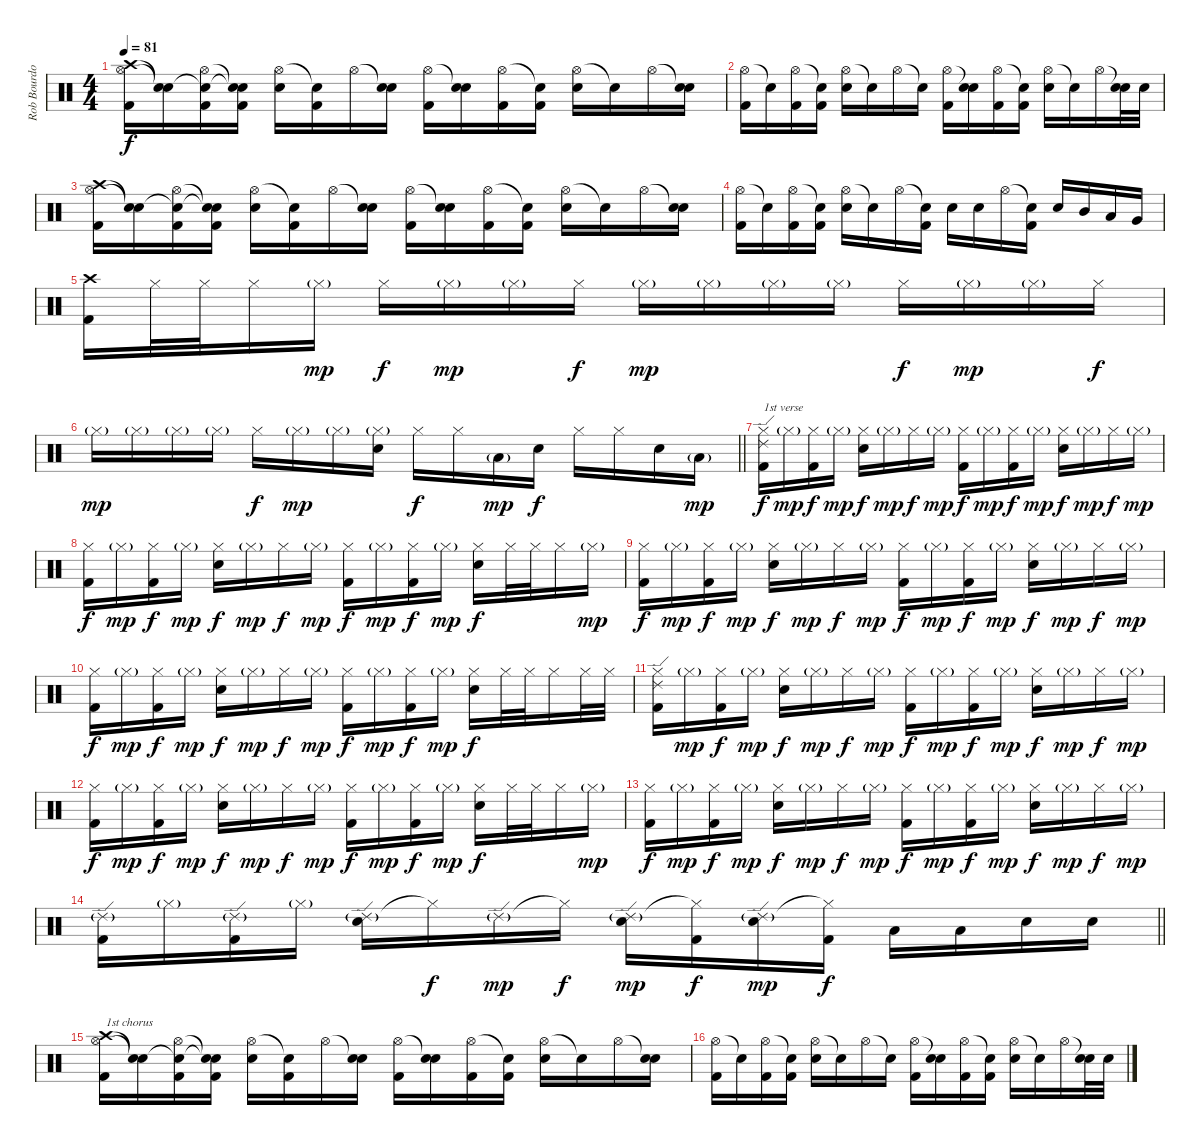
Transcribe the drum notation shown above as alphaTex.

\track ("Rob Bourdon - Drums" "Rob Bourdo") {instrument percussion}
\staff {score}
\articulation defaults
\ts (4 4)
\tempo 81
\clef neutral
\ks c
("Crash high (hit)" "Hi-Hat (open)" "Kick (hit) 2").16{dy f volume 12} ("Snare (hit)"{t} "Snare (hit)"{t}).16 ("Snare (hit)"{t} "Hi-Hat (open)" "Kick (hit) 2").16 ("Snare (hit)"{t} "Snare (hit)"{t} "Kick (hit) 2").16 ("Hi-Hat (open)" "Electric Snare (hit)").16 ("Snare (hit)"{t} "Kick (hit) 2").16 "Hi-Hat (open)".16 ("Snare (hit)"{t} "Electric Snare (hit)").16 ("Hi-Hat (open)" "Kick (hit) 2").16 ("Snare (hit)"{t} "Electric Snare (hit)").16 ("Hi-Hat (open)" "Kick (hit) 2").16 ("Snare (hit)"{t} "Kick (hit) 2").16 ("Hi-Hat (open)" "Electric Snare (hit)").16 "Snare (hit)"{t}.16 "Hi-Hat (open)".16 ("Snare (hit)"{t} "Electric Snare (hit)").16 |
("Hi-Hat (open)" "Kick (hit) 2").16 "Snare (hit)"{t}.16 ("Hi-Hat (open)" "Kick (hit) 2").16 ("Snare (hit)"{t} "Kick (hit) 2").16 ("Hi-Hat (open)" "Electric Snare (hit)").16 "Snare (hit)"{t}.16 "Hi-Hat (open)".16 "Snare (hit)"{t}.16 ("Hi-Hat (open)" "Kick (hit) 2").16 ("Snare (hit)"{t} "Electric Snare (hit)").16 ("Hi-Hat (open)" "Kick (hit) 2").16 ("Snare (hit)"{t} "Kick (hit) 2").16 ("Hi-Hat (open)" "Electric Snare (hit)").16 "Snare (hit)"{t}.16 "Hi-Hat (open)".16 ("Snare (hit)"{t} "Electric Snare (hit)").32 "Electric Snare (hit)".32 |
("Crash high (hit)" "Hi-Hat (open)" "Kick (hit) 2").16 ("Snare (hit)"{t} "Snare (hit)"{t}).16 ("Snare (hit)"{t} "Hi-Hat (open)" "Kick (hit) 2").16 ("Snare (hit)"{t} "Snare (hit)"{t} "Kick (hit) 2").16 ("Hi-Hat (open)" "Electric Snare (hit)").16 ("Snare (hit)"{t} "Kick (hit) 2").16 "Hi-Hat (open)".16 ("Snare (hit)"{t} "Electric Snare (hit)").16 ("Hi-Hat (open)" "Kick (hit) 2").16 ("Snare (hit)"{t} "Electric Snare (hit)").16 ("Hi-Hat (open)" "Kick (hit) 2").16 ("Snare (hit)"{t} "Kick (hit) 2").16 ("Hi-Hat (open)" "Electric Snare (hit)").16 "Snare (hit)"{t}.16 "Hi-Hat (open)".16 ("Snare (hit)"{t} "Electric Snare (hit)").16 |
("Hi-Hat (open)" "Kick (hit) 2").16 "Snare (hit)"{t}.16 ("Hi-Hat (open)" "Kick (hit) 2").16 ("Snare (hit)"{t} "Kick (hit) 2").16 ("Hi-Hat (open)" "Electric Snare (hit)").16 "Snare (hit)"{t}.16 "Hi-Hat (open)".16 ("Snare (hit)"{t} "Kick (hit) 2").16 "Electric Snare (hit)".16 "Electric Snare (hit)".16 "Hi-Hat (open)".16 ("Snare (hit)"{t} "Kick (hit) 2").16 "Electric Snare (hit)".16 "Mid Tom (hit)".16 "Low Tom (hit)".16 "Very Low Tom (hit)".16 |
("Crash high (hit)" "Kick (hit) 2").16 "Hi-Hat (closed)".32 "Hi-Hat (closed)".32 "Hi-Hat (closed)".16 "Hi-Hat (closed)"{g}.16{dy mp} "Hi-Hat (closed)".16{dy f} "Hi-Hat (closed)"{g}.16{dy mp} "Hi-Hat (closed)"{g}.16 "Hi-Hat (closed)".16{dy f} "Hi-Hat (closed)"{g}.16{dy mp} "Hi-Hat (closed)"{g}.16 "Hi-Hat (closed)"{g}.16 "Hi-Hat (closed)"{g}.16 "Hi-Hat (closed)".16{dy f} "Hi-Hat (closed)"{g}.16{dy mp} "Hi-Hat (closed)"{g}.16 "Hi-Hat (closed)".16{dy f} |
\barLineRight lightlight "Hi-Hat (closed)"{g}.16{dy mp} "Hi-Hat (closed)"{g}.16 "Hi-Hat (closed)"{g}.16 "Hi-Hat (closed)"{g}.16 "Hi-Hat (closed)".16{dy f} "Hi-Hat (closed)"{g}.16{dy mp} "Hi-Hat (closed)"{g}.16
("Hi-Hat (closed)"{g} "Electric Snare (hit)").16 "Hi-Hat (closed)".16{dy f} "Hi-Hat (closed)".16 "Low Tom (hit)"{g}.16{dy mp} "Electric Snare (hit)".16{dy f} "Hi-Hat (closed)".16 "Hi-Hat (closed)".16 "Electric Snare (hit)".16 "Low Tom (hit)"{g}.16{dy mp} |
("Ride (edge) 2" "Hi-Hat (closed)" "Kick (hit) 2").16{txt "1st verse" dy f} "Hi-Hat (closed)"{g}.16{dy mp} ("Hi-Hat (closed)" "Kick (hit) 2").16{dy f} "Hi-Hat (closed)"{g}.16{dy mp} ("Hi-Hat (closed)" "Electric Snare (hit)").16{dy f} "Hi-Hat (closed)"{g}.16{dy mp} "Hi-Hat (closed)".16{dy f} "Hi-Hat (closed)"{g}.16{dy mp} ("Hi-Hat (closed)" "Kick (hit) 2").16{dy f} "Hi-Hat (closed)"{g}.16{dy mp} ("Hi-Hat (closed)" "Kick (hit) 2").16{dy f} "Hi-Hat (closed)"{g}.16{dy mp} ("Hi-Hat (closed)" "Electric Snare (hit)").16{dy f} "Hi-Hat (closed)"{g}.16{dy mp} "Hi-Hat (closed)".16{dy f} "Hi-Hat (closed)"{g}.16{dy mp} |
("Hi-Hat (closed)" "Kick (hit) 2").16{dy f} "Hi-Hat (closed)"{g}.16{dy mp} ("Hi-Hat (closed)" "Kick (hit) 2").16{dy f} "Hi-Hat (closed)"{g}.16{dy mp} ("Hi-Hat (closed)" "Electric Snare (hit)").16{dy f} "Hi-Hat (closed)"{g}.16{dy mp} "Hi-Hat (closed)".16{dy f} "Hi-Hat (closed)"{g}.16{dy mp} ("Hi-Hat (closed)" "Kick (hit) 2").16{dy f} "Hi-Hat (closed)"{g}.16{dy mp} ("Hi-Hat (closed)" "Kick (hit) 2").16{dy f} "Hi-Hat (closed)"{g}.16{dy mp} ("Hi-Hat (closed)" "Electric Snare (hit)").16{dy f} "Hi-Hat (closed)".32 "Hi-Hat (closed)".32 "Hi-Hat (closed)".16 "Hi-Hat (closed)"{g}.16{dy mp} |
("Hi-Hat (closed)" "Kick (hit) 2").16{dy f} "Hi-Hat (closed)"{g}.16{dy mp} ("Hi-Hat (closed)" "Kick (hit) 2").16{dy f} "Hi-Hat (closed)"{g}.16{dy mp} ("Hi-Hat (closed)" "Electric Snare (hit)").16{dy f} "Hi-Hat (closed)"{g}.16{dy mp} "Hi-Hat (closed)".16{dy f} "Hi-Hat (closed)"{g}.16{dy mp} ("Hi-Hat (closed)" "Kick (hit) 2").16{dy f} "Hi-Hat (closed)"{g}.16{dy mp} ("Hi-Hat (closed)" "Kick (hit) 2").16{dy f} "Hi-Hat (closed)"{g}.16{dy mp} ("Hi-Hat (closed)" "Electric Snare (hit)").16{dy f} "Hi-Hat (closed)"{g}.16{dy mp} "Hi-Hat (closed)".16{dy f} "Hi-Hat (closed)"{g}.16{dy mp} |
("Hi-Hat (closed)" "Kick (hit) 2").16{dy f} "Hi-Hat (closed)"{g}.16{dy mp} ("Hi-Hat (closed)" "Kick (hit) 2").16{dy f} "Hi-Hat (closed)"{g}.16{dy mp} ("Hi-Hat (closed)" "Electric Snare (hit)").16{dy f} "Hi-Hat (closed)"{g}.16{dy mp} "Hi-Hat (closed)".16{dy f} "Hi-Hat (closed)"{g}.16{dy mp} ("Hi-Hat (closed)" "Kick (hit) 2").16{dy f} "Hi-Hat (closed)"{g}.16{dy mp} ("Hi-Hat (closed)" "Kick (hit) 2").16{dy f} "Hi-Hat (closed)"{g}.16{dy mp} ("Hi-Hat (closed)" "Electric Snare (hit)").16{dy f} "Hi-Hat (closed)".32 "Hi-Hat (closed)".32 "Hi-Hat (closed)".16 "Hi-Hat (closed)".32 "Hi-Hat (closed)".32 |
("Ride (edge) 2" "Hi-Hat (closed)" "Kick (hit) 2").16 "Hi-Hat (closed)"{g}.16{dy mp} ("Hi-Hat (closed)" "Kick (hit) 2").16{dy f} "Hi-Hat (closed)"{g}.16{dy mp} ("Hi-Hat (closed)" "Electric Snare (hit)").16{dy f} "Hi-Hat (closed)"{g}.16{dy mp} "Hi-Hat (closed)".16{dy f} "Hi-Hat (closed)"{g}.16{dy mp} ("Hi-Hat (closed)" "Kick (hit) 2").16{dy f} "Hi-Hat (closed)"{g}.16{dy mp} ("Hi-Hat (closed)" "Kick (hit) 2").16{dy f} "Hi-Hat (closed)"{g}.16{dy mp} ("Hi-Hat (closed)" "Electric Snare (hit)").16{dy f} "Hi-Hat (closed)"{g}.16{dy mp} "Hi-Hat (closed)".16{dy f} "Hi-Hat (closed)"{g}.16{dy mp} |
("Hi-Hat (closed)" "Kick (hit) 2").16{dy f} "Hi-Hat (closed)"{g}.16{dy mp} ("Hi-Hat (closed)" "Kick (hit) 2").16{dy f} "Hi-Hat (closed)"{g}.16{dy mp} ("Hi-Hat (closed)" "Electric Snare (hit)").16{dy f} "Hi-Hat (closed)"{g}.16{dy mp} "Hi-Hat (closed)".16{dy f} "Hi-Hat (closed)"{g}.16{dy mp} ("Hi-Hat (closed)" "Kick (hit) 2").16{dy f} "Hi-Hat (closed)"{g}.16{dy mp} ("Hi-Hat (closed)" "Kick (hit) 2").16{dy f} "Hi-Hat (closed)"{g}.16{dy mp} ("Hi-Hat (closed)" "Electric Snare (hit)").16{dy f} "Hi-Hat (closed)".32 "Hi-Hat (closed)".32 "Hi-Hat (closed)".16 "Hi-Hat (closed)"{g}.16{dy mp} |
("Hi-Hat (closed)" "Kick (hit) 2").16{dy f} "Hi-Hat (closed)"{g}.16{dy mp} ("Hi-Hat (closed)" "Kick (hit) 2").16{dy f} "Hi-Hat (closed)"{g}.16{dy mp} ("Hi-Hat (closed)" "Electric Snare (hit)").16{dy f} "Hi-Hat (closed)"{g}.16{dy mp} "Hi-Hat (closed)".16{dy f} "Hi-Hat (closed)"{g}.16{dy mp} ("Hi-Hat (closed)" "Kick (hit) 2").16{dy f} "Hi-Hat (closed)"{g}.16{dy mp} ("Hi-Hat (closed)" "Kick (hit) 2").16{dy f} "Hi-Hat (closed)"{g}.16{dy mp} ("Hi-Hat (closed)" "Electric Snare (hit)").16{dy f} "Hi-Hat (closed)"{g}.16{dy mp} "Hi-Hat (closed)".16{dy f} "Hi-Hat (closed)"{g}.16{dy mp} |
\barLineRight lightlight
("Ride (edge) 2"{g} "Kick (hit) 2").16 "Hi-Hat (closed)"{g}.16 ("Ride (edge) 2"{g} "Kick (hit) 2").16 "Hi-Hat (closed)"{g}.16 ("Ride (edge) 2"{g} "Electric Snare (hit)").16 "Hi-Hat (closed)"{t}.16{dy f} "Ride (edge) 2"{g}.16{dy mp} "Hi-Hat (closed)"{t}.16{dy f} ("Ride (edge) 2"{g} "Electric Snare (hit)").16{dy mp} ("Hi-Hat (closed)"{t} "Kick (hit) 2").16{dy f} ("Ride (edge) 2"{g} "Electric Snare (hit)").16{dy mp} ("Hi-Hat (closed)"{t} "Kick (hit) 2").16{dy f} "Low Tom (hit)".16 "Low Tom (hit)".16 "Electric Snare (hit)".16 "Electric Snare (hit)".16 |
("Crash high (hit)" "Hi-Hat (open)" "Kick (hit) 2").16{txt "1st chorus"} ("Snare (hit)"{t} "Snare (hit)"{t}).16 ("Snare (hit)"{t} "Hi-Hat (open)" "Kick (hit) 2").16 ("Snare (hit)"{t} "Snare (hit)"{t} "Kick (hit) 2").16 ("Hi-Hat (open)" "Electric Snare (hit)").16 ("Snare (hit)"{t} "Kick (hit) 2").16 "Hi-Hat (open)".16 ("Snare (hit)"{t} "Electric Snare (hit)").16 ("Hi-Hat (open)" "Kick (hit) 2").16 ("Snare (hit)"{t} "Electric Snare (hit)").16 ("Hi-Hat (open)" "Kick (hit) 2").16 ("Snare (hit)"{t} "Kick (hit) 2").16 ("Hi-Hat (open)" "Electric Snare (hit)").16 "Snare (hit)"{t}.16 "Hi-Hat (open)".16 ("Snare (hit)"{t} "Electric Snare (hit)").16 |
("Hi-Hat (open)" "Kick (hit) 2").16 "Snare (hit)"{t}.16 ("Hi-Hat (open)" "Kick (hit) 2").16 ("Snare (hit)"{t} "Kick (hit) 2").16 ("Hi-Hat (open)" "Electric Snare (hit)").16 "Snare (hit)"{t}.16 "Hi-Hat (open)".16 "Snare (hit)"{t}.16 ("Hi-Hat (open)" "Kick (hit) 2").16 ("Snare (hit)"{t} "Electric Snare (hit)").16 ("Hi-Hat (open)" "Kick (hit) 2").16 ("Snare (hit)"{t} "Kick (hit) 2").16 ("Hi-Hat (open)" "Electric Snare (hit)").16 "Snare (hit)"{t}.16 "Hi-Hat (open)".16 ("Snare (hit)"{t} "Electric Snare (hit)").32 "Electric Snare (hit)".32
